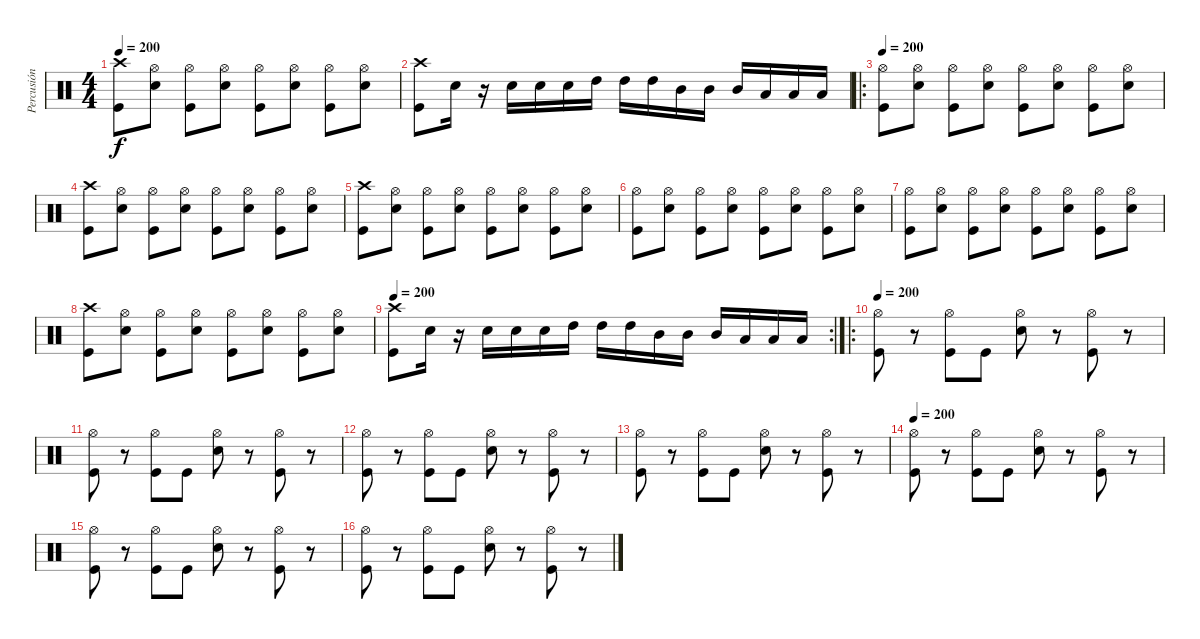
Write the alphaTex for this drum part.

\track ("Percusión" "Percusión") {instrument percussion}
\staff {score}
\articulation defaults
\ts (4 4)
\tempo 200
\clef neutral
\ks c
("Crash high (hit)" "Kick (hit)").8{dy f} ("Hi-Hat (open)" "Snare (hit) 2").8 ("Hi-Hat (open)" "Kick (hit)").8 ("Hi-Hat (open)" "Snare (hit) 2").8 ("Hi-Hat (open)" "Kick (hit)").8 ("Hi-Hat (open)" "Snare (hit) 2").8 ("Hi-Hat (open)" "Kick (hit)").8 ("Hi-Hat (open)" "Snare (hit) 2").8 |
("Crash high (hit)" "Kick (hit)").8 "Snare (hit) 2".16 r.16 "Snare (hit) 2".16 "Snare (hit) 2".16 "Snare (hit) 2".16 "High Tom (hit)".16 "High Tom (hit)".16 "High Tom (hit)".16 "Mid Tom (hit)".16 "Mid Tom (hit)".16 "Mid Tom (hit)".16 "Low Tom (hit)".16 "Low Tom (hit)".16 "Low Tom (hit)".16 |
\ro
\tempo 200
("Hi-Hat (open)" "Kick (hit)").8 ("Hi-Hat (open)" "Snare (hit) 2").8 ("Hi-Hat (open)" "Kick (hit)").8 ("Hi-Hat (open)" "Snare (hit) 2").8 ("Hi-Hat (open)" "Kick (hit)").8 ("Hi-Hat (open)" "Snare (hit) 2").8 ("Hi-Hat (open)" "Kick (hit)").8 ("Hi-Hat (open)" "Snare (hit) 2").8 |
("Crash high (hit)" "Kick (hit)").8 ("Hi-Hat (open)" "Snare (hit) 2").8 ("Hi-Hat (open)" "Kick (hit)").8 ("Hi-Hat (open)" "Snare (hit) 2").8 ("Hi-Hat (open)" "Kick (hit)").8 ("Hi-Hat (open)" "Snare (hit) 2").8 ("Hi-Hat (open)" "Kick (hit)").8 ("Hi-Hat (open)" "Snare (hit) 2").8 |
("Crash high (hit)" "Kick (hit)").8 ("Hi-Hat (open)" "Snare (hit) 2").8 ("Hi-Hat (open)" "Kick (hit)").8 ("Hi-Hat (open)" "Snare (hit) 2").8 ("Hi-Hat (open)" "Kick (hit)").8 ("Hi-Hat (open)" "Snare (hit) 2").8 ("Hi-Hat (open)" "Kick (hit)").8 ("Hi-Hat (open)" "Snare (hit) 2").8 |
("Hi-Hat (open)" "Kick (hit)").8 ("Hi-Hat (open)" "Snare (hit) 2").8 ("Hi-Hat (open)" "Kick (hit)").8 ("Hi-Hat (open)" "Snare (hit) 2").8 ("Hi-Hat (open)" "Kick (hit)").8 ("Hi-Hat (open)" "Snare (hit) 2").8 ("Hi-Hat (open)" "Kick (hit)").8 ("Hi-Hat (open)" "Snare (hit) 2").8 |
("Hi-Hat (open)" "Kick (hit)").8 ("Hi-Hat (open)" "Snare (hit) 2").8 ("Hi-Hat (open)" "Kick (hit)").8 ("Hi-Hat (open)" "Snare (hit) 2").8 ("Hi-Hat (open)" "Kick (hit)").8 ("Hi-Hat (open)" "Snare (hit) 2").8 ("Hi-Hat (open)" "Kick (hit)").8 ("Hi-Hat (open)" "Snare (hit) 2").8 |
("Crash high (hit)" "Kick (hit)").8 ("Hi-Hat (open)" "Snare (hit) 2").8 ("Hi-Hat (open)" "Kick (hit)").8 ("Hi-Hat (open)" "Snare (hit) 2").8 ("Hi-Hat (open)" "Kick (hit)").8 ("Hi-Hat (open)" "Snare (hit) 2").8 ("Hi-Hat (open)" "Kick (hit)").8 ("Hi-Hat (open)" "Snare (hit) 2").8 |
\rc 2
\tempo 200
("Crash high (hit)" "Kick (hit)").8 "Snare (hit) 2".16 r.16 "Snare (hit) 2".16 "Snare (hit) 2".16 "Snare (hit) 2".16 "High Tom (hit)".16 "High Tom (hit)".16 "High Tom (hit)".16 "Mid Tom (hit)".16 "Mid Tom (hit)".16 "Mid Tom (hit)".16 "Low Tom (hit)".16 "Low Tom (hit)".16 "Low Tom (hit)".16 |
\ro
\tempo 200
("Hi-Hat (open)" "Kick (hit)").8 r.8 ("Hi-Hat (open)" "Kick (hit)").8 "Kick (hit)".8 ("Hi-Hat (open)" "Snare (hit) 2").8 r.8 ("Hi-Hat (open)" "Kick (hit)").8 r.8 |
("Hi-Hat (open)" "Kick (hit)").8 r.8 ("Hi-Hat (open)" "Kick (hit)").8 "Kick (hit)".8 ("Hi-Hat (open)" "Snare (hit) 2").8 r.8 ("Hi-Hat (open)" "Kick (hit)").8 r.8 |
("Hi-Hat (open)" "Kick (hit)").8 r.8 ("Hi-Hat (open)" "Kick (hit)").8 "Kick (hit)".8 ("Hi-Hat (open)" "Snare (hit) 2").8 r.8 ("Hi-Hat (open)" "Kick (hit)").8 r.8 |
("Hi-Hat (open)" "Kick (hit)").8 r.8 ("Hi-Hat (open)" "Kick (hit)").8 "Kick (hit)".8 ("Hi-Hat (open)" "Snare (hit) 2").8 r.8 ("Hi-Hat (open)" "Kick (hit)").8 r.8 |
\tempo 200
("Hi-Hat (open)" "Kick (hit)").8 r.8 ("Hi-Hat (open)" "Kick (hit)").8 "Kick (hit)".8 ("Hi-Hat (open)" "Snare (hit) 2").8 r.8 ("Hi-Hat (open)" "Kick (hit)").8 r.8 |
("Hi-Hat (open)" "Kick (hit)").8 r.8 ("Hi-Hat (open)" "Kick (hit)").8 "Kick (hit)".8 ("Hi-Hat (open)" "Snare (hit) 2").8 r.8 ("Hi-Hat (open)" "Kick (hit)").8 r.8 |
("Hi-Hat (open)" "Kick (hit)").8 r.8 ("Hi-Hat (open)" "Kick (hit)").8 "Kick (hit)".8 ("Hi-Hat (open)" "Snare (hit) 2").8 r.8 ("Hi-Hat (open)" "Kick (hit)").8 r.8
